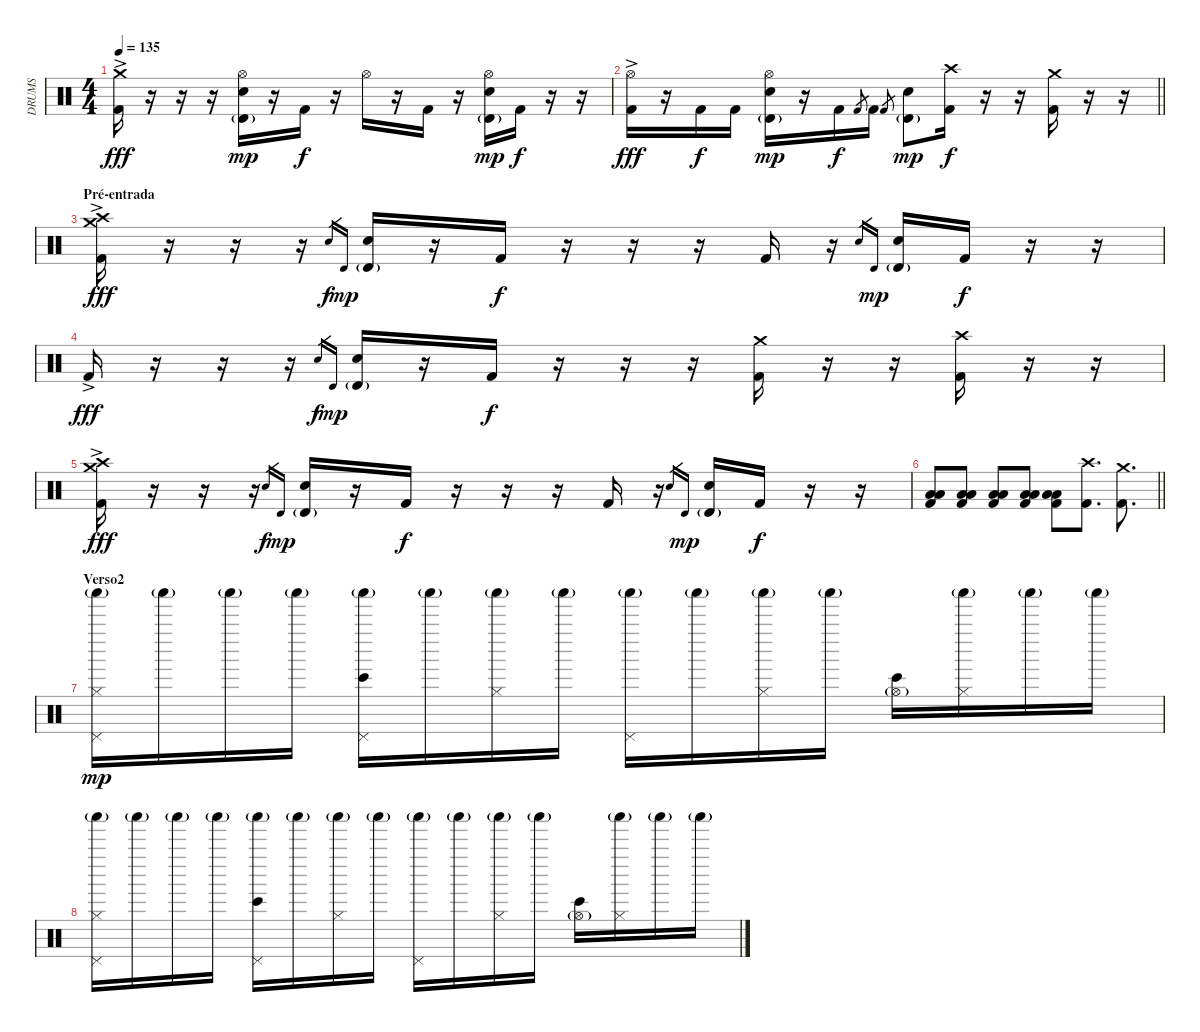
\track ("DRUMS" "DRUMS") {instrument percussion}
\staff {score}
\articulation defaults
\ts (4 4)
\tempo 135
\clef neutral
\ks c
("Crash medium (hit)" "Kick (hit) 2"{ac}).16{dy fff} r.16 r.16 r.16 ("Hi-Hat (open)" "Electric Snare (hit)" "Timbale high (hit)"{g}).16{dy mp} r.16 "Kick (hit) 2".16{dy f} r.16 "Hi-Hat (open)".16 r.16 "Kick (hit) 2".16 r.16 ("Hi-Hat (open)" "Electric Snare (hit)" "Timbale high (hit)"{g}).16{dy mp} "Kick (hit) 2".16{dy f} r.16 r.16 |
\barLineRight lightlight
("Hi-Hat (open)" "Kick (hit) 2"{ac}).16{dy fff} r.16 "Kick (hit) 2".16{dy f} "Kick (hit) 2".16 ("Hi-Hat (open)" "Electric Snare (hit)" "Timbale high (hit)"{g}).16{dy mp} r.16 "Kick (hit) 2".16{dy f} "Kick (hit) 2".8{gr} "Kick (hit) 2".16 "Kick (hit) 2".8{gr} ("Electric Snare (hit)" "Timbale high (hit)"{g}).8{dy mp} ("Kick (hit) 2" "Crash high (hit)").16{dy f} r.16 r.16 ("Kick (hit) 2" "Crash medium (hit)").16 r.16 r.16 |
\section ("" "Pré-entrada")
("Crash high (hit)" "Crash medium (hit)" "Kick (hit) 2"{ac}).16{dy fff} r.16 r.16 r.16 "Electric Snare (hit)".16{gr dy f} "Timbale high (hit)".16{gr dy mp} ("Electric Snare (hit)" "Timbale high (hit)"{g}).16 r.16 "Kick (hit) 2".16{dy f} r.16 r.16 r.16 "Kick (hit) 2".16 r.16 "Electric Snare (hit)".16{gr} "Timbale high (hit)".16{gr dy mp} ("Electric Snare (hit)" "Timbale high (hit)"{g}).16 "Kick (hit) 2".16{dy f} r.16 r.16 |
"Kick (hit) 2"{ac}.16{dy fff} r.16 r.16 r.16 "Electric Snare (hit)".16{gr dy f} "Timbale high (hit)".16{gr dy mp} ("Electric Snare (hit)" "Timbale high (hit)"{g}).16 r.16 "Kick (hit) 2".16{dy f} r.16 r.16 r.16 ("Crash medium (hit)" "Kick (hit) 2").16 r.16 r.16 ("Crash high (hit)" "Kick (hit) 2").16 r.16 r.16 |
("Crash high (hit)" "Crash medium (hit)" "Kick (hit) 2"{ac}).16{dy fff} r.16 r.16 r.16 "Electric Snare (hit)".16{gr dy f} "Timbale high (hit)".16{gr dy mp} ("Electric Snare (hit)" "Timbale high (hit)"{g}).16 r.16 "Kick (hit) 2".16{dy f} r.16 r.16 r.16 "Kick (hit) 2".16 r.16 "Electric Snare (hit)".16{gr} "Timbale high (hit)".16{gr dy mp} ("Electric Snare (hit)" "Timbale high (hit)"{g}).16 "Kick (hit) 2".16{dy f} r.16 r.16 |
\barLineRight lightlight
("Kick (hit) 2" "Low Tom (hit)" "Low Floor Tom (hit)").8 ("Kick (hit) 2" "Low Tom (hit)" "Low Floor Tom (hit)").8 ("Kick (hit) 2" "Low Tom (hit)" "Low Floor Tom (hit)").8 ("Kick (hit) 2" "Low Tom (hit)" "Low Floor Tom (hit)").8 ("Kick (hit) 2" "Low Tom (hit)" "Low Floor Tom (hit)").8 ("Kick (hit) 2" "Crash high (hit)").8{d} ("Kick (hit) 2" "Crash medium (hit)").8{d} |
\section ("" "Verso2")
("Shaker (hit)"{g} "Hi-Hat (closed)" "Pedal Hi-Hat (hit)").16{dy mp} "Shaker (hit)"{g}.16 "Shaker (hit)"{g}.16 "Shaker (hit)"{g}.16 ("Shaker (hit)"{g} "Bongo High (hit)" "Pedal Hi-Hat (hit)").16 "Shaker (hit)"{g}.16 ("Shaker (hit)"{g} "Hi-Hat (closed)").16 "Shaker (hit)"{g}.16 ("Shaker (hit)"{g} "Pedal Hi-Hat (hit)").16 "Shaker (hit)"{g}.16 ("Shaker (hit)"{g} "Hi-Hat (closed)").16 "Shaker (hit)"{g}.16 ("Bongo High (hit)" "Hi-Hat (open)"{g}).16 ("Shaker (hit)"{g} "Hi-Hat (closed)").16 "Shaker (hit)"{g}.16 "Shaker (hit)"{g}.16 |
("Shaker (hit)"{g} "Hi-Hat (closed)" "Pedal Hi-Hat (hit)").16 "Shaker (hit)"{g}.16 "Shaker (hit)"{g}.16 "Shaker (hit)"{g}.16 ("Shaker (hit)"{g} "Bongo High (hit)" "Pedal Hi-Hat (hit)").16 "Shaker (hit)"{g}.16 ("Shaker (hit)"{g} "Hi-Hat (closed)").16 "Shaker (hit)"{g}.16 ("Shaker (hit)"{g} "Pedal Hi-Hat (hit)").16 "Shaker (hit)"{g}.16 ("Shaker (hit)"{g} "Hi-Hat (closed)").16 "Shaker (hit)"{g}.16 ("Bongo High (hit)" "Hi-Hat (open)"{g}).16 ("Shaker (hit)"{g} "Hi-Hat (closed)").16 "Shaker (hit)"{g}.16 "Shaker (hit)"{g}.16
